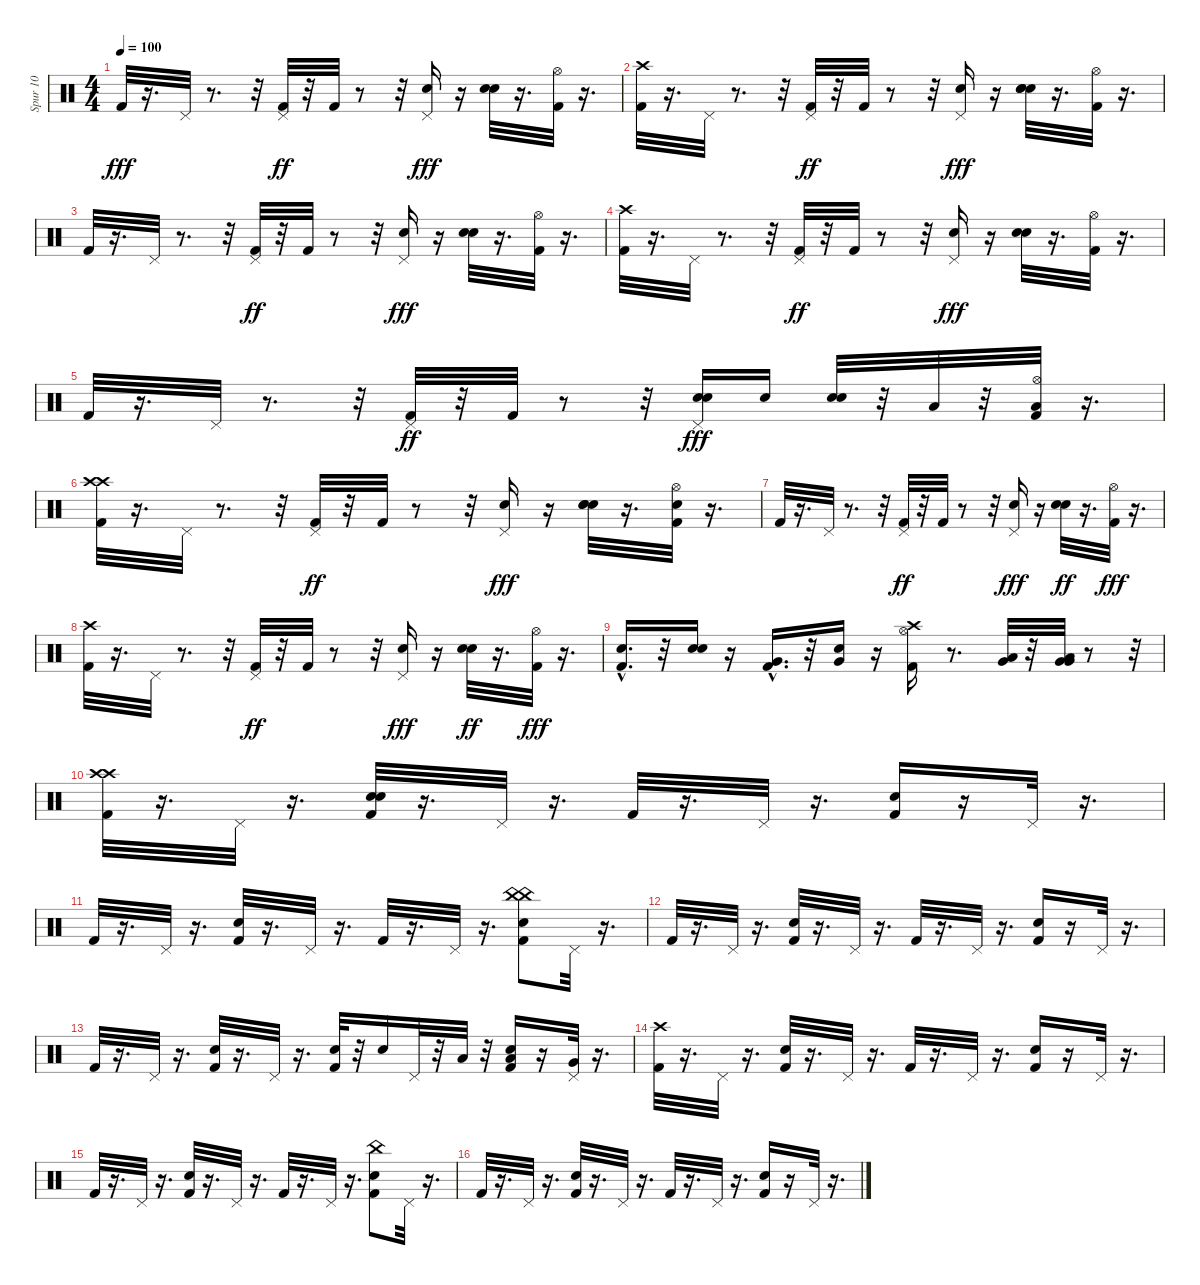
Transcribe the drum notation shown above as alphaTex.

\track ("Spur 10" "Spur 10") {instrument percussion}
\staff {score}
\articulation defaults
\ts (4 4)
\tempo 100
\clef neutral
\ks c "Kick (hit) 2".32{dy fff}
r.16{d} "Pedal Hi-Hat (hit)".32 r.8{d} r.32 ("Pedal Hi-Hat (hit)" "Kick (hit) 2").32{dy ff} r.32 "Kick (hit) 2".32 r.8 r.32 ("Hand Clap (hit)" "Pedal Hi-Hat (hit)").16{dy fff} r.16 ("Electric Snare (hit)" "Snare (hit) 2").32 r.16{d} ("Hi-Hat (open)" "Kick (hit) 2").32 r.16{d} |
("Kick (hit) 2" "Crash high (hit)").32 r.16{d} "Pedal Hi-Hat (hit)".32 r.8{d} r.32 ("Pedal Hi-Hat (hit)" "Kick (hit) 2").32{dy ff} r.32 "Kick (hit) 2".32 r.8 r.32 ("Hand Clap (hit)" "Pedal Hi-Hat (hit)").16{dy fff} r.16 ("Hand Clap (hit)" "Electric Snare (hit)" "Snare (hit) 2").32 r.16{d} ("Hi-Hat (open)" "Kick (hit) 2").32 r.16{d} |
"Kick (hit) 2".32 r.16{d} "Pedal Hi-Hat (hit)".32 r.8{d} r.32 ("Pedal Hi-Hat (hit)" "Kick (hit) 2").32{dy ff} r.32 "Kick (hit) 2".32 r.8 r.32 ("Hand Clap (hit)" "Pedal Hi-Hat (hit)").16{dy fff} r.16 ("Electric Snare (hit)" "Snare (hit) 2").32 r.16{d} ("Hi-Hat (open)" "Kick (hit) 2").32 r.16{d} |
("Kick (hit) 2" "Crash high (hit)").32 r.16{d} "Pedal Hi-Hat (hit)".32 r.8{d} r.32 ("Pedal Hi-Hat (hit)" "Kick (hit) 2").32{dy ff} r.32 "Kick (hit) 2".32 r.8 r.32 ("Hand Clap (hit)" "Pedal Hi-Hat (hit)").16{dy fff} r.16 ("Electric Snare (hit)" "Snare (hit) 2").32 r.16{d} ("Hi-Hat (open)" "Kick (hit) 2").32 r.16{d} |
"Kick (hit) 2".32 r.16{d} "Pedal Hi-Hat (hit)".32 r.8{d} r.32 ("Pedal Hi-Hat (hit)" "Kick (hit) 2").32{dy ff} r.32 "Kick (hit) 2".32 r.8 r.32 ("Hand Clap (hit)" "Pedal Hi-Hat (hit)" "Electric Snare (hit)").16{dy fff} "Electric Snare (hit)".16 ("Electric Snare (hit)" "Snare (hit) 2").32 r.32 "Low Floor Tom (hit)".32 r.32 ("Hi-Hat (open)" "Kick (hit) 2" "Low Floor Tom (hit)").32 r.16{d} |
("Kick (hit) 2" "Crash high (hit)" "Crash high (hit)").32 r.16{d} "Pedal Hi-Hat (hit)".32 r.8{d} r.32 ("Pedal Hi-Hat (hit)" "Kick (hit) 2").32{dy ff} r.32 "Kick (hit) 2".32 r.8 r.32 ("Hand Clap (hit)" "Pedal Hi-Hat (hit)").16{dy fff} r.16 ("Hand Clap (hit)" "Snare (hit) 2" "Electric Snare (hit)").32 r.16{d} ("Hi-Hat (open)" "Kick (hit) 2" "Hand Clap (hit)").32 r.16{d} |
"Kick (hit) 2".32 r.16{d} "Pedal Hi-Hat (hit)".32 r.8{d} r.32 ("Pedal Hi-Hat (hit)" "Kick (hit) 2").32{dy ff} r.32 "Kick (hit) 2".32 r.8 r.32 ("Hand Clap (hit)" "Pedal Hi-Hat (hit)").16{dy fff} r.16 ("Electric Snare (hit)" "Snare (hit) 2").32{dy ff} r.16{d} ("Hi-Hat (open)" "Kick (hit) 2").32{dy fff} r.16{d} |
("Kick (hit) 2" "Crash high (hit)").32 r.16{d} "Pedal Hi-Hat (hit)".32 r.8{d} r.32 ("Pedal Hi-Hat (hit)" "Kick (hit) 2").32{dy ff} r.32 "Kick (hit) 2".32 r.8 r.32 ("Hand Clap (hit)" "Pedal Hi-Hat (hit)").16{dy fff} r.16 ("Snare (hit) 2" "Electric Snare (hit)").32{dy ff} r.16{d} ("Hi-Hat (open)" "Kick (hit) 2").32{dy fff} r.16{d} |
("Kick (hit) 2"{hac} "Electric Snare (hit)").16{d} r.32 ("Electric Snare (hit)" "Electric Snare (hit)").16 r.16 ("Kick (hit) 2"{hac} "Very Low Tom (hit)").16{d} r.32 ("Electric Snare (hit)" "Very Low Tom (hit)").16 r.16 ("Hi-Hat (open)" "Kick (hit) 2" "Crash high (hit)").16 r.8{d} ("Low Tom (hit)" "Very Low Tom (hit)").32 r.32 ("Low Tom (hit)" "Very Low Tom (hit)" "Very Low Tom (hit)").32 r.8 r.32 |
("Kick (hit) 2" "Crash high (hit)" "Crash high (hit)").32 r.16{d} "Pedal Hi-Hat (hit)".32 r.16{d} ("Electric Snare (hit)" "Kick (hit) 2" "Electric Snare (hit)").32 r.16{d} "Pedal Hi-Hat (hit)".32 r.16{d} "Kick (hit) 2".32 r.16{d} "Pedal Hi-Hat (hit)".32 r.16{d} ("Electric Snare (hit)" "Kick (hit) 2").16 r.16 "Pedal Hi-Hat (hit)".32 r.16{d} |
"Kick (hit) 2".32 r.16{d} "Pedal Hi-Hat (hit)".32 r.16{d} ("Electric Snare (hit)" "Kick (hit) 2").32 r.16{d} "Pedal Hi-Hat (hit)".32 r.16{d} "Kick (hit) 2".32 r.16{d} "Pedal Hi-Hat (hit)".32 r.16{d} ("Electric Snare (hit)" "Kick (hit) 2" "China (hit)" "China (hit)").8 "Pedal Hi-Hat (hit)".32 r.16{d} |
"Kick (hit) 2".32 r.16{d} "Pedal Hi-Hat (hit)".32 r.16{d} ("Electric Snare (hit)" "Kick (hit) 2").32 r.16{d} "Pedal Hi-Hat (hit)".32 r.16{d} "Kick (hit) 2".32 r.16{d} "Pedal Hi-Hat (hit)".32 r.16{d} ("Electric Snare (hit)" "Kick (hit) 2").16 r.16 "Pedal Hi-Hat (hit)".32 r.16{d} |
"Kick (hit) 2".32 r.16{d} "Pedal Hi-Hat (hit)".32 r.16{d} ("Electric Snare (hit)" "Kick (hit) 2").32 r.16{d} "Pedal Hi-Hat (hit)".32 r.16{d} ("Kick (hit) 2" "Electric Snare (hit)").32 r.32 "Electric Snare (hit)".16 "Pedal Hi-Hat (hit)".32 r.32 "Low Floor Tom (hit)".32 r.32 ("Electric Snare (hit)" "Kick (hit) 2" "Low Floor Tom (hit)").16 r.16 ("Pedal Hi-Hat (hit)" "Very Low Tom (hit)").32 r.16{d} |
("Kick (hit) 2" "Crash high (hit)").32 r.16{d} "Pedal Hi-Hat (hit)".32 r.16{d} ("Electric Snare (hit)" "Kick (hit) 2").32 r.16{d} "Pedal Hi-Hat (hit)".32 r.16{d} "Kick (hit) 2".32 r.16{d} "Pedal Hi-Hat (hit)".32 r.16{d} ("Electric Snare (hit)" "Kick (hit) 2").16 r.16 "Pedal Hi-Hat (hit)".32 r.16{d} |
"Kick (hit) 2".32 r.16{d} "Pedal Hi-Hat (hit)".32 r.16{d} ("Electric Snare (hit)" "Kick (hit) 2").32 r.16{d} "Pedal Hi-Hat (hit)".32 r.16{d} "Kick (hit) 2".32 r.16{d} "Pedal Hi-Hat (hit)".32 r.16{d} ("Electric Snare (hit)" "Kick (hit) 2" "China (hit)").8 "Pedal Hi-Hat (hit)".32 r.16{d} |
"Kick (hit) 2".32 r.16{d} "Pedal Hi-Hat (hit)".32 r.16{d} ("Electric Snare (hit)" "Kick (hit) 2").32 r.16{d} "Pedal Hi-Hat (hit)".32 r.16{d} "Kick (hit) 2".32 r.16{d} "Pedal Hi-Hat (hit)".32 r.16{d} ("Electric Snare (hit)" "Kick (hit) 2").16 r.16 "Pedal Hi-Hat (hit)".32 r.16{d}
